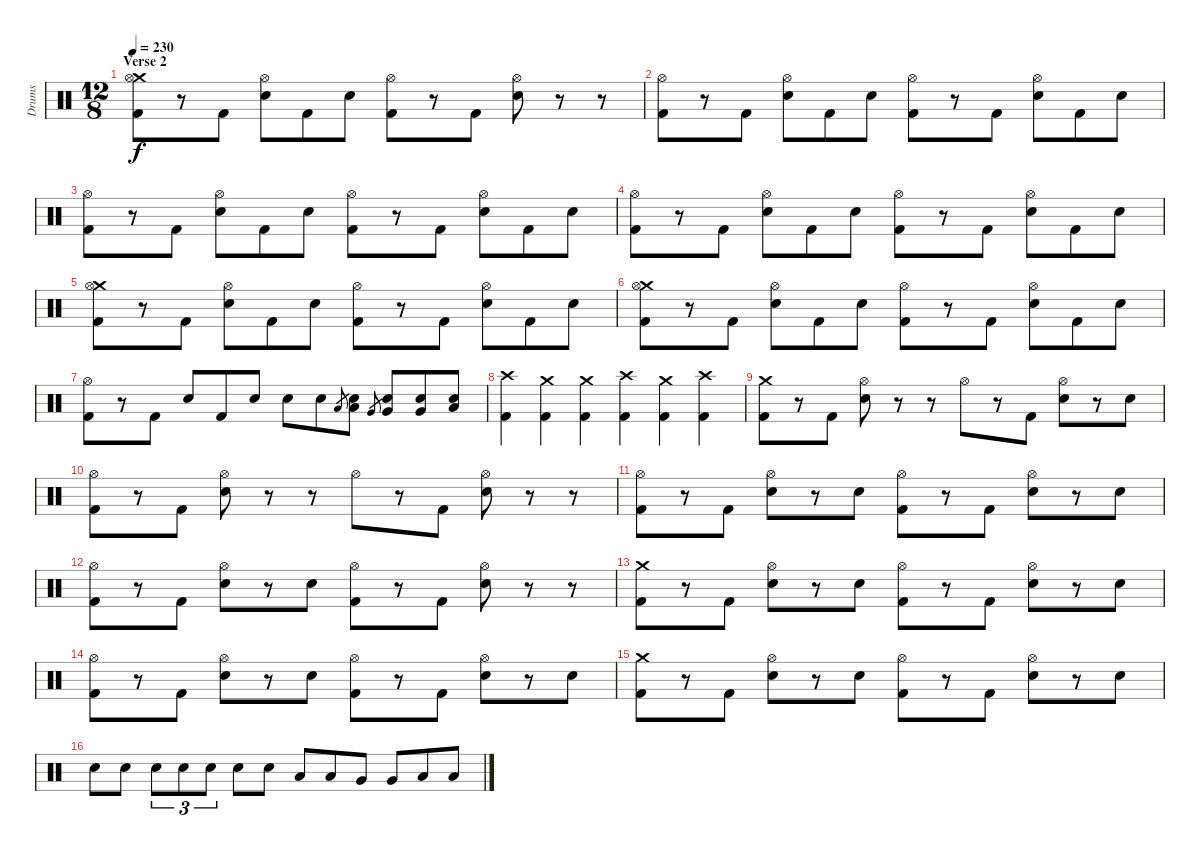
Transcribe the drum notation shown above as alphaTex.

\track ("Drums" "Drums") {instrument percussion}
\staff {score}
\articulation defaults
\ts (12 8)
\section ("" "Verse 2")
\tempo 230
\clef neutral
\ks c
("Crash medium (hit)" "Hi-Hat (open)" "Kick (hit) 2").8{dy f} r.8 "Kick (hit) 2".8 ("Hi-Hat (open)" "Snare (hit) 2").8 "Kick (hit) 2".8 "Snare (hit) 2".8 ("Hi-Hat (open)" "Kick (hit) 2").8 r.8 "Kick (hit) 2".8 ("Hi-Hat (open)" "Snare (hit) 2").8 r.8 r.8 |
("Hi-Hat (open)" "Kick (hit) 2").8 r.8 "Kick (hit) 2".8 ("Hi-Hat (open)" "Snare (hit) 2").8 "Kick (hit) 2".8 "Snare (hit) 2".8 ("Hi-Hat (open)" "Kick (hit) 2").8 r.8 "Kick (hit) 2".8 ("Hi-Hat (open)" "Snare (hit) 2").8 "Kick (hit) 2".8 "Snare (hit) 2".8 |
("Hi-Hat (open)" "Kick (hit) 2").8 r.8 "Kick (hit) 2".8 ("Hi-Hat (open)" "Snare (hit) 2").8 "Kick (hit) 2".8 "Snare (hit) 2".8 ("Hi-Hat (open)" "Kick (hit) 2").8 r.8 "Kick (hit) 2".8 ("Hi-Hat (open)" "Snare (hit) 2").8 "Kick (hit) 2".8 "Snare (hit) 2".8 |
("Hi-Hat (open)" "Kick (hit) 2").8 r.8 "Kick (hit) 2".8 ("Hi-Hat (open)" "Snare (hit) 2").8 "Kick (hit) 2".8 "Snare (hit) 2".8 ("Hi-Hat (open)" "Kick (hit) 2").8 r.8 "Kick (hit) 2".8 ("Hi-Hat (open)" "Snare (hit) 2").8 "Kick (hit) 2".8 "Snare (hit) 2".8 |
("Crash medium (hit)" "Hi-Hat (open)" "Kick (hit) 2").8 r.8 "Kick (hit) 2".8 ("Hi-Hat (open)" "Snare (hit) 2").8 "Kick (hit) 2".8 "Snare (hit) 2".8 ("Hi-Hat (open)" "Kick (hit) 2").8 r.8 "Kick (hit) 2".8 ("Hi-Hat (open)" "Snare (hit) 2").8 "Kick (hit) 2".8 "Snare (hit) 2".8 |
("Crash medium (hit)" "Hi-Hat (open)" "Kick (hit) 2").8 r.8 "Kick (hit) 2".8 ("Hi-Hat (open)" "Snare (hit) 2").8 "Kick (hit) 2".8 "Snare (hit) 2".8 ("Hi-Hat (open)" "Kick (hit) 2").8 r.8 "Kick (hit) 2".8 ("Hi-Hat (open)" "Snare (hit) 2").8 "Kick (hit) 2".8 "Snare (hit) 2".8 |
("Hi-Hat (open)" "Kick (hit) 2").8 r.8 "Kick (hit) 2".8 "Snare (hit) 2".8 "Kick (hit) 2".8 "Snare (hit) 2".8 "Snare (hit) 2".8 "Snare (hit) 2".8 "Low Tom (hit)".8{gr} ("Snare (hit) 2" "Low Tom (hit)").8 "Very Low Tom (hit)".8{gr} ("Snare (hit) 2" "Very Low Tom (hit)").8 ("Snare (hit) 2" "Very Low Tom (hit)").8 ("Snare (hit) 2" "Low Floor Tom (hit)").8 |
("Crash high (hit)" "Kick (hit) 2").4 ("Crash medium (hit)" "Kick (hit) 2").4 ("Crash medium (hit)" "Kick (hit) 2").4 ("Crash high (hit)" "Kick (hit) 2").4 ("Crash medium (hit)" "Kick (hit) 2").4 ("Crash high (hit)" "Kick (hit) 2").4 |
("Crash medium (hit)" "Kick (hit) 2").8 r.8 "Kick (hit) 2".8 ("Hi-Hat (open)" "Snare (hit) 2").8 r.8 r.8 "Hi-Hat (open)".8 r.8 "Kick (hit) 2".8 ("Hi-Hat (open)" "Snare (hit) 2").8 r.8 "Snare (hit) 2".8 |
("Hi-Hat (open)" "Kick (hit) 2").8 r.8 "Kick (hit) 2".8 ("Hi-Hat (open)" "Snare (hit) 2").8 r.8 r.8 "Hi-Hat (open)".8 r.8 "Kick (hit) 2".8 ("Hi-Hat (open)" "Snare (hit) 2").8 r.8 r.8 |
("Hi-Hat (open)" "Kick (hit) 2").8 r.8 "Kick (hit) 2".8 ("Hi-Hat (open)" "Snare (hit) 2").8 r.8 "Snare (hit) 2".8 ("Hi-Hat (open)" "Kick (hit) 2").8 r.8 "Kick (hit) 2".8 ("Hi-Hat (open)" "Snare (hit) 2").8 r.8 "Snare (hit) 2".8 |
("Hi-Hat (open)" "Kick (hit) 2").8 r.8 "Kick (hit) 2".8 ("Hi-Hat (open)" "Snare (hit) 2").8 r.8 "Snare (hit) 2".8 ("Hi-Hat (open)" "Kick (hit) 2").8 r.8 "Kick (hit) 2".8 ("Hi-Hat (open)" "Snare (hit) 2").8 r.8 r.8 |
("Crash medium (hit)" "Kick (hit) 2").8 r.8 "Kick (hit) 2".8 ("Hi-Hat (open)" "Snare (hit) 2").8 r.8 "Snare (hit) 2".8 ("Hi-Hat (open)" "Kick (hit) 2").8 r.8 "Kick (hit) 2".8 ("Hi-Hat (open)" "Snare (hit) 2").8 r.8 "Snare (hit) 2".8 |
("Hi-Hat (open)" "Kick (hit) 2").8 r.8 "Kick (hit) 2".8 ("Hi-Hat (open)" "Snare (hit) 2").8 r.8 "Snare (hit) 2".8 ("Hi-Hat (open)" "Kick (hit) 2").8 r.8 "Kick (hit) 2".8 ("Hi-Hat (open)" "Snare (hit) 2").8 r.8 "Snare (hit) 2".8 |
("Crash medium (hit)" "Kick (hit) 2").8 r.8 "Kick (hit) 2".8 ("Hi-Hat (open)" "Snare (hit) 2").8 r.8 "Snare (hit) 2".8 ("Hi-Hat (open)" "Kick (hit) 2").8 r.8 "Kick (hit) 2".8 ("Hi-Hat (open)" "Snare (hit) 2").8 r.8 "Snare (hit) 2".8 |
"Snare (hit) 2".8 "Snare (hit) 2".8 "Snare (hit) 2".8{tu (3 2)} "Snare (hit) 2".8{tu (3 2)} "Snare (hit) 2".8{tu (3 2)} "Snare (hit) 2".8 "Snare (hit) 2".8 "Low Tom (hit)".8 "Low Tom (hit)".8 "Very Low Tom (hit)".8 "Very Low Tom (hit)".8 "Low Floor Tom (hit)".8 "Low Floor Tom (hit)".8
